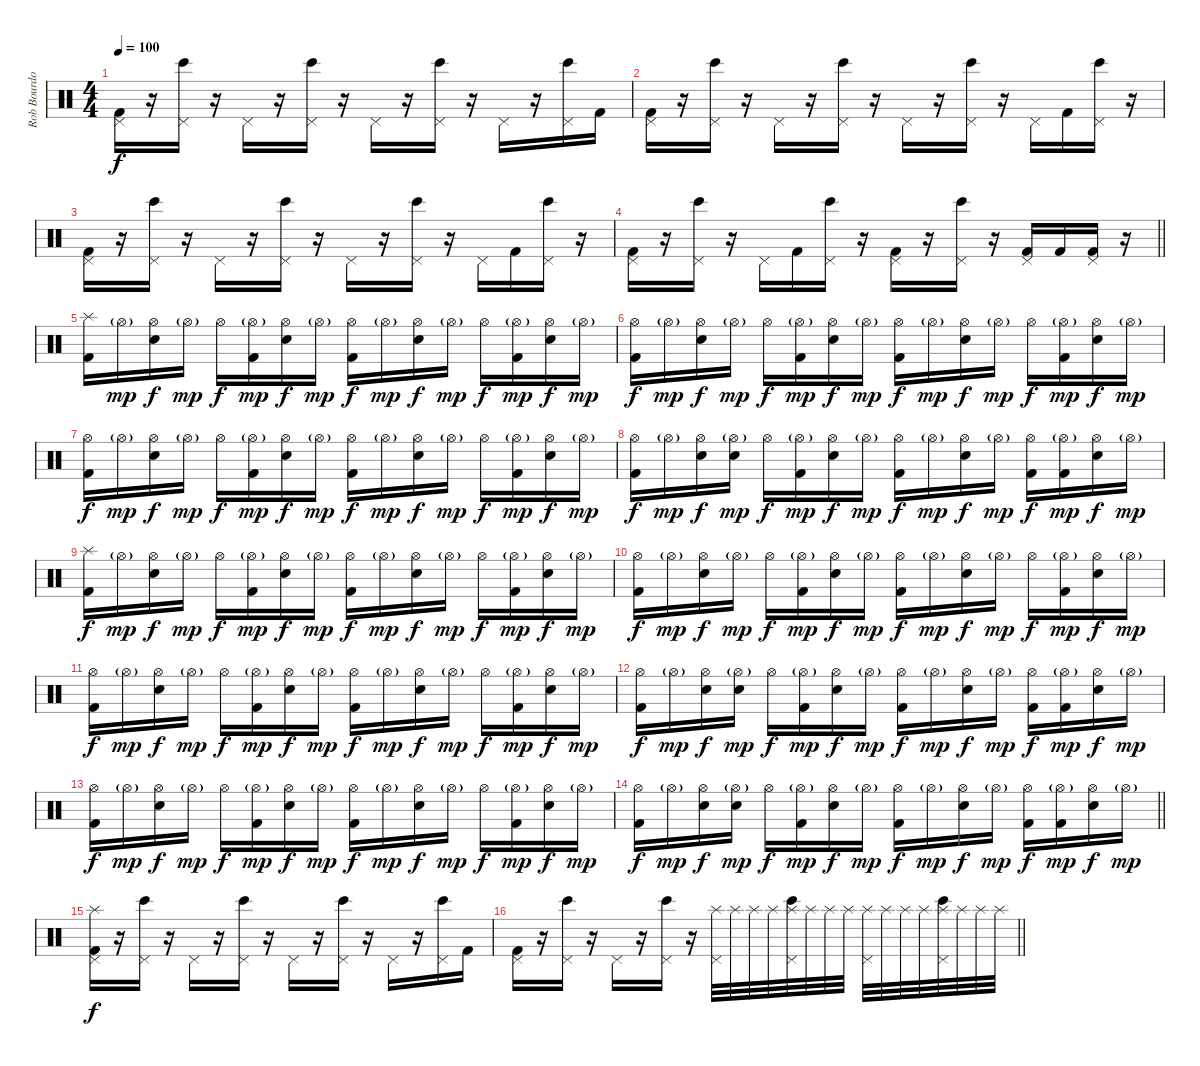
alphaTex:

\track ("Rob Bourdon (Drums)" "Rob Bourdo") {instrument percussion}
\staff {score}
\articulation defaults
\ts (4 4)
\tempo 100
\clef neutral
\ks c
("Pedal Hi-Hat (hit)" "Kick (hit) 2").16{dy f} r.16 ("Bongo High (hit)" "Pedal Hi-Hat (hit)").16 r.16 "Pedal Hi-Hat (hit)".16 r.16 ("Bongo High (hit)" "Pedal Hi-Hat (hit)").16 r.16 "Pedal Hi-Hat (hit)".16 r.16 ("Bongo High (hit)" "Pedal Hi-Hat (hit)").16 r.16 "Pedal Hi-Hat (hit)".16 r.16 ("Bongo High (hit)" "Pedal Hi-Hat (hit)").16 "Kick (hit) 2".16 |
("Pedal Hi-Hat (hit)" "Kick (hit) 2").16 r.16 ("Bongo High (hit)" "Pedal Hi-Hat (hit)").16 r.16 "Pedal Hi-Hat (hit)".16 r.16 ("Bongo High (hit)" "Pedal Hi-Hat (hit)").16 r.16 "Pedal Hi-Hat (hit)".16 r.16 ("Bongo High (hit)" "Pedal Hi-Hat (hit)").16 r.16 "Pedal Hi-Hat (hit)".16 "Kick (hit) 2".16 ("Bongo High (hit)" "Pedal Hi-Hat (hit)").16 r.16 |
("Pedal Hi-Hat (hit)" "Kick (hit) 2").16 r.16 ("Bongo High (hit)" "Pedal Hi-Hat (hit)").16 r.16 "Pedal Hi-Hat (hit)".16 r.16 ("Bongo High (hit)" "Pedal Hi-Hat (hit)").16 r.16 "Pedal Hi-Hat (hit)".16 r.16 ("Bongo High (hit)" "Pedal Hi-Hat (hit)").16 r.16 "Pedal Hi-Hat (hit)".16 "Kick (hit) 2".16 ("Bongo High (hit)" "Pedal Hi-Hat (hit)").16 r.16 |
\barLineRight lightlight
("Pedal Hi-Hat (hit)" "Kick (hit) 2").16 r.16 ("Bongo High (hit)" "Pedal Hi-Hat (hit)").16 r.16 "Pedal Hi-Hat (hit)".16 "Kick (hit) 2".16 ("Bongo High (hit)" "Pedal Hi-Hat (hit)").16 r.16 ("Pedal Hi-Hat (hit)" "Kick (hit) 2").16 r.16 ("Bongo High (hit)" "Pedal Hi-Hat (hit)").16 r.16 ("Pedal Hi-Hat (hit)" "Kick (hit) 2").16 "Kick (hit) 2".16 ("Pedal Hi-Hat (hit)" "Kick (hit) 2").16 r.16 |
("Splash (hit)" "Kick (hit) 2").16 "Hi-Hat (open)"{g}.16{dy mp} ("Hi-Hat (open)" "Electric Snare (hit)").16{dy f} "Hi-Hat (open)"{g}.16{dy mp} "Hi-Hat (open)".16{dy f} ("Hi-Hat (open)"{g} "Kick (hit) 2").16{dy mp} ("Hi-Hat (open)" "Electric Snare (hit)").16{dy f} "Hi-Hat (open)"{g}.16{dy mp} ("Hi-Hat (open)" "Kick (hit) 2").16{dy f} "Hi-Hat (open)"{g}.16{dy mp} ("Hi-Hat (open)" "Electric Snare (hit)").16{dy f} "Hi-Hat (open)"{g}.16{dy mp} "Hi-Hat (open)".16{dy f} ("Hi-Hat (open)"{g} "Kick (hit) 2").16{dy mp} ("Hi-Hat (open)" "Electric Snare (hit)").16{dy f} "Hi-Hat (open)"{g}.16{dy mp} |
("Hi-Hat (open)" "Kick (hit) 2").16{dy f} "Hi-Hat (open)"{g}.16{dy mp} ("Hi-Hat (open)" "Electric Snare (hit)").16{dy f} "Hi-Hat (open)"{g}.16{dy mp} "Hi-Hat (open)".16{dy f} ("Hi-Hat (open)"{g} "Kick (hit) 2").16{dy mp} ("Hi-Hat (open)" "Electric Snare (hit)").16{dy f} "Hi-Hat (open)"{g}.16{dy mp} ("Hi-Hat (open)" "Kick (hit) 2").16{dy f} "Hi-Hat (open)"{g}.16{dy mp} ("Hi-Hat (open)" "Electric Snare (hit)").16{dy f} "Hi-Hat (open)"{g}.16{dy mp} "Hi-Hat (open)".16{dy f} ("Hi-Hat (open)"{g} "Kick (hit) 2").16{dy mp} ("Hi-Hat (open)" "Electric Snare (hit)").16{dy f} "Hi-Hat (open)"{g}.16{dy mp} |
("Hi-Hat (open)" "Kick (hit) 2").16{dy f} "Hi-Hat (open)"{g}.16{dy mp} ("Hi-Hat (open)" "Electric Snare (hit)").16{dy f} "Hi-Hat (open)"{g}.16{dy mp} "Hi-Hat (open)".16{dy f} ("Hi-Hat (open)"{g} "Kick (hit) 2").16{dy mp} ("Hi-Hat (open)" "Electric Snare (hit)").16{dy f} "Hi-Hat (open)"{g}.16{dy mp} ("Hi-Hat (open)" "Kick (hit) 2").16{dy f} "Hi-Hat (open)"{g}.16{dy mp} ("Hi-Hat (open)" "Electric Snare (hit)").16{dy f} "Hi-Hat (open)"{g}.16{dy mp} "Hi-Hat (open)".16{dy f} ("Hi-Hat (open)"{g} "Kick (hit) 2").16{dy mp} ("Hi-Hat (open)" "Electric Snare (hit)").16{dy f} "Hi-Hat (open)"{g}.16{dy mp} |
("Hi-Hat (open)" "Kick (hit) 2").16{dy f} "Hi-Hat (open)"{g}.16{dy mp} ("Hi-Hat (open)" "Electric Snare (hit)").16{dy f} ("Hi-Hat (open)"{g} "Electric Snare (hit)").16{dy mp} "Hi-Hat (open)".16{dy f} ("Hi-Hat (open)"{g} "Kick (hit) 2").16{dy mp} ("Hi-Hat (open)" "Electric Snare (hit)").16{dy f} "Hi-Hat (open)"{g}.16{dy mp} ("Hi-Hat (open)" "Kick (hit) 2").16{dy f} "Hi-Hat (open)"{g}.16{dy mp} ("Hi-Hat (open)" "Electric Snare (hit)").16{dy f} "Hi-Hat (open)"{g}.16{dy mp} ("Hi-Hat (open)" "Kick (hit) 2").16{dy f} ("Hi-Hat (open)"{g} "Kick (hit) 2").16{dy mp} ("Hi-Hat (open)" "Electric Snare (hit)").16{dy f} "Hi-Hat (open)"{g}.16{dy mp} |
("Splash (hit)" "Kick (hit) 2").16{dy f} "Hi-Hat (open)"{g}.16{dy mp} ("Hi-Hat (open)" "Electric Snare (hit)").16{dy f} "Hi-Hat (open)"{g}.16{dy mp} "Hi-Hat (open)".16{dy f} ("Hi-Hat (open)"{g} "Kick (hit) 2").16{dy mp} ("Hi-Hat (open)" "Electric Snare (hit)").16{dy f} "Hi-Hat (open)"{g}.16{dy mp} ("Hi-Hat (open)" "Kick (hit) 2").16{dy f} "Hi-Hat (open)"{g}.16{dy mp} ("Hi-Hat (open)" "Electric Snare (hit)").16{dy f} "Hi-Hat (open)"{g}.16{dy mp} "Hi-Hat (open)".16{dy f} ("Hi-Hat (open)"{g} "Kick (hit) 2").16{dy mp} ("Hi-Hat (open)" "Electric Snare (hit)").16{dy f} "Hi-Hat (open)"{g}.16{dy mp} |
("Hi-Hat (open)" "Kick (hit) 2").16{dy f} "Hi-Hat (open)"{g}.16{dy mp} ("Hi-Hat (open)" "Electric Snare (hit)").16{dy f} "Hi-Hat (open)"{g}.16{dy mp} "Hi-Hat (open)".16{dy f} ("Hi-Hat (open)"{g} "Kick (hit) 2").16{dy mp} ("Hi-Hat (open)" "Electric Snare (hit)").16{dy f} "Hi-Hat (open)"{g}.16{dy mp} ("Hi-Hat (open)" "Kick (hit) 2").16{dy f} "Hi-Hat (open)"{g}.16{dy mp} ("Hi-Hat (open)" "Electric Snare (hit)").16{dy f} "Hi-Hat (open)"{g}.16{dy mp} "Hi-Hat (open)".16{dy f} ("Hi-Hat (open)"{g} "Kick (hit) 2").16{dy mp} ("Hi-Hat (open)" "Electric Snare (hit)").16{dy f} "Hi-Hat (open)"{g}.16{dy mp} |
("Hi-Hat (open)" "Kick (hit) 2").16{dy f} "Hi-Hat (open)"{g}.16{dy mp} ("Hi-Hat (open)" "Electric Snare (hit)").16{dy f} "Hi-Hat (open)"{g}.16{dy mp} "Hi-Hat (open)".16{dy f} ("Hi-Hat (open)"{g} "Kick (hit) 2").16{dy mp} ("Hi-Hat (open)" "Electric Snare (hit)").16{dy f} "Hi-Hat (open)"{g}.16{dy mp} ("Hi-Hat (open)" "Kick (hit) 2").16{dy f} "Hi-Hat (open)"{g}.16{dy mp} ("Hi-Hat (open)" "Electric Snare (hit)").16{dy f} "Hi-Hat (open)"{g}.16{dy mp} "Hi-Hat (open)".16{dy f} ("Hi-Hat (open)"{g} "Kick (hit) 2").16{dy mp} ("Hi-Hat (open)" "Electric Snare (hit)").16{dy f} "Hi-Hat (open)"{g}.16{dy mp} |
("Hi-Hat (open)" "Kick (hit) 2").16{dy f} "Hi-Hat (open)"{g}.16{dy mp} ("Hi-Hat (open)" "Electric Snare (hit)").16{dy f} ("Hi-Hat (open)"{g} "Electric Snare (hit)").16{dy mp} "Hi-Hat (open)".16{dy f} ("Hi-Hat (open)"{g} "Kick (hit) 2").16{dy mp} ("Hi-Hat (open)" "Electric Snare (hit)").16{dy f} "Hi-Hat (open)"{g}.16{dy mp} ("Hi-Hat (open)" "Kick (hit) 2").16{dy f} "Hi-Hat (open)"{g}.16{dy mp} ("Hi-Hat (open)" "Electric Snare (hit)").16{dy f} "Hi-Hat (open)"{g}.16{dy mp} ("Hi-Hat (open)" "Kick (hit) 2").16{dy f} ("Hi-Hat (open)"{g} "Kick (hit) 2").16{dy mp} ("Hi-Hat (open)" "Electric Snare (hit)").16{dy f} "Hi-Hat (open)"{g}.16{dy mp} |
("Hi-Hat (open)" "Kick (hit) 2").16{dy f} "Hi-Hat (open)"{g}.16{dy mp} ("Hi-Hat (open)" "Electric Snare (hit)").16{dy f} "Hi-Hat (open)"{g}.16{dy mp} "Hi-Hat (open)".16{dy f} ("Hi-Hat (open)"{g} "Kick (hit) 2").16{dy mp} ("Hi-Hat (open)" "Electric Snare (hit)").16{dy f} "Hi-Hat (open)"{g}.16{dy mp} ("Hi-Hat (open)" "Kick (hit) 2").16{dy f} "Hi-Hat (open)"{g}.16{dy mp} ("Hi-Hat (open)" "Electric Snare (hit)").16{dy f} "Hi-Hat (open)"{g}.16{dy mp} "Hi-Hat (open)".16{dy f} ("Hi-Hat (open)"{g} "Kick (hit) 2").16{dy mp} ("Hi-Hat (open)" "Electric Snare (hit)").16{dy f} "Hi-Hat (open)"{g}.16{dy mp} |
\barLineRight lightlight
("Hi-Hat (open)" "Kick (hit) 2").16{dy f} "Hi-Hat (open)"{g}.16{dy mp} ("Hi-Hat (open)" "Electric Snare (hit)").16{dy f} ("Hi-Hat (open)"{g} "Electric Snare (hit)").16{dy mp} "Hi-Hat (open)".16{dy f} ("Hi-Hat (open)"{g} "Kick (hit) 2").16{dy mp} ("Hi-Hat (open)" "Electric Snare (hit)").16{dy f} "Hi-Hat (open)"{g}.16{dy mp} ("Hi-Hat (open)" "Kick (hit) 2").16{dy f} "Hi-Hat (open)"{g}.16{dy mp} ("Hi-Hat (open)" "Electric Snare (hit)").16{dy f} "Hi-Hat (open)"{g}.16{dy mp} ("Hi-Hat (open)" "Kick (hit) 2").16{dy f} ("Hi-Hat (open)"{g} "Kick (hit) 2").16{dy mp} ("Hi-Hat (open)" "Electric Snare (hit)").16{dy f} "Hi-Hat (open)"{g}.16{dy mp} |
("Splash (hit)" "Pedal Hi-Hat (hit)" "Kick (hit) 2").16{dy f} r.16 ("Bongo High (hit)" "Pedal Hi-Hat (hit)").16 r.16 "Pedal Hi-Hat (hit)".16 r.16 ("Bongo High (hit)" "Pedal Hi-Hat (hit)").16 r.16 "Pedal Hi-Hat (hit)".16 r.16 ("Bongo High (hit)" "Pedal Hi-Hat (hit)").16 r.16 "Pedal Hi-Hat (hit)".16 r.16 ("Bongo High (hit)" "Pedal Hi-Hat (hit)").16 "Kick (hit) 2".16 |
\barLineRight lightlight
("Pedal Hi-Hat (hit)" "Kick (hit) 2").16 r.16 ("Bongo High (hit)" "Pedal Hi-Hat (hit)").16 r.16 "Pedal Hi-Hat (hit)".16 r.16 ("Bongo High (hit)" "Pedal Hi-Hat (hit)").16 r.16 ("Splash (hit)" "Pedal Hi-Hat (hit)").32 "Splash (hit)".32 "Splash (hit)".32 "Splash (hit)".32 ("Splash (hit)" "Bongo High (hit)" "Pedal Hi-Hat (hit)").32 "Splash (hit)".32 "Splash (hit)".32 "Splash (hit)".32 ("Splash (hit)" "Pedal Hi-Hat (hit)").32 "Splash (hit)".32 "Splash (hit)".32 "Splash (hit)".32 ("Splash (hit)" "Bongo High (hit)" "Pedal Hi-Hat (hit)").32 "Splash (hit)".32 "Splash (hit)".32 "Splash (hit)".32
